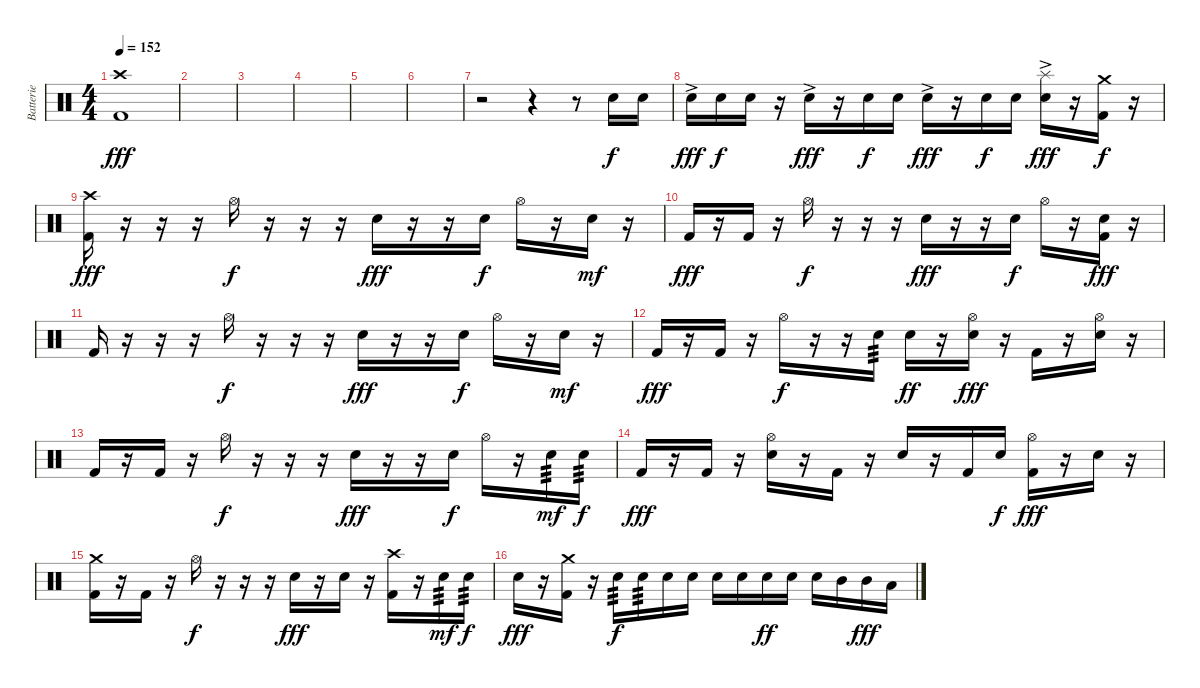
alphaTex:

\track ("Batterie" "Batterie") {instrument percussion}
\staff {score}
\articulation defaults
\ts (4 4)
\section ("" "")
\tempo 152
\clef neutral
\ks c
("Crash high (hit)" "Kick (hit) 2").1{dy fff} |
|
|
|
|
|
r.2 r.4 r.8 "Electric Snare (hit)".16{dy f} "Electric Snare (hit)".16 |
"Electric Snare (hit)"{ac}.16{dy fff} "Electric Snare (hit)".16{dy f} "Electric Snare (hit)".16 r.16 "Electric Snare (hit)"{ac}.16{dy fff} r.16 "Electric Snare (hit)".16{dy f} "Electric Snare (hit)".16 "Electric Snare (hit)"{ac}.16{dy fff} r.16 "Electric Snare (hit)".16{dy f} "Electric Snare (hit)".16 ("Splash (hit)" "Electric Snare (hit)"{ac}).16{dy fff} r.16 ("Crash medium (hit)" "Kick (hit) 2").16{dy f} r.16 |
("Crash high (hit)" "Kick (hit) 2").16{dy fff} r.16 r.16 r.16 "Hi-Hat (open)".16{dy f} r.16 r.16 r.16 "Electric Snare (hit)".16{dy fff} r.16 r.16 "Electric Snare (hit)".16{dy f} "Hi-Hat (open)".16 r.16 "Electric Snare (hit)".16{dy mf} r.16 |
"Kick (hit) 2".16{dy fff} r.16 "Kick (hit) 2".16 r.16 "Hi-Hat (open)".16{dy f} r.16 r.16 r.16 "Electric Snare (hit)".16{dy fff} r.16 r.16 "Electric Snare (hit)".16{dy f} "Hi-Hat (open)".16 r.16 ("Electric Snare (hit)" "Kick (hit) 2").16{dy fff} r.16 |
"Kick (hit) 2".16 r.16 r.16 r.16 "Hi-Hat (open)".16{dy f} r.16 r.16 r.16 "Electric Snare (hit)".16{dy fff} r.16 r.16 "Electric Snare (hit)".16{dy f} "Hi-Hat (open)".16 r.16 "Electric Snare (hit)".16{dy mf} r.16 |
"Kick (hit) 2".16{dy fff} r.16 "Kick (hit) 2".16 r.16 "Hi-Hat (open)".16{dy f} r.16 r.16 "Electric Snare (hit)".16{tp 3} "Electric Snare (hit)".16{dy ff} r.16 ("Hi-Hat (open)" "Electric Snare (hit)").16{dy fff} r.16 "Kick (hit) 2".16 r.16 ("Hi-Hat (open)" "Electric Snare (hit)").16 r.16 |
"Kick (hit) 2".16 r.16 "Kick (hit) 2".16 r.16 "Hi-Hat (open)".16{dy f} r.16 r.16 r.16 "Electric Snare (hit)".16{dy fff} r.16 r.16 "Electric Snare (hit)".16{dy f} "Hi-Hat (open)".16 r.16 "Electric Snare (hit)".16{tp 3 dy mf} "Electric Snare (hit)".16{tp 3 dy f} |
"Kick (hit) 2".16{dy fff} r.16 "Kick (hit) 2".16 r.16 ("Hi-Hat (open)" "Electric Snare (hit)").16 r.16 "Kick (hit) 2".16 r.16 "Electric Snare (hit)".16 r.16 "Kick (hit) 2".16 "Electric Snare (hit)".16{dy f} ("Hi-Hat (open)" "Kick (hit) 2").16{dy fff} r.16 "Electric Snare (hit)".16 r.16 |
("Crash medium (hit)" "Kick (hit) 2").16 r.16 "Kick (hit) 2".16 r.16 "Hi-Hat (open)".16{dy f} r.16 r.16 r.16 "Electric Snare (hit)".16{dy fff} r.16 "Electric Snare (hit)".16 r.16 ("Crash high (hit)" "Kick (hit) 2").16 r.16 "Electric Snare (hit)".16{tp 3 dy mf} "Electric Snare (hit)".16{tp 3 dy f} |
"Electric Snare (hit)".16{dy fff volume 14} r.16 ("Crash medium (hit)" "Kick (hit) 2").16 r.16 "Electric Snare (hit)".16{tp 3 dy f} "Electric Snare (hit)".16{tp 3} "Electric Snare (hit)".16 "Electric Snare (hit)".16 "Electric Snare (hit)".16 "Electric Snare (hit)".16 "Electric Snare (hit)".16{dy ff} "Electric Snare (hit)".16 "Electric Snare (hit)".16 "Mid Tom (hit)".16 "Mid Tom (hit)".16{dy fff} "Low Tom (hit)".16
